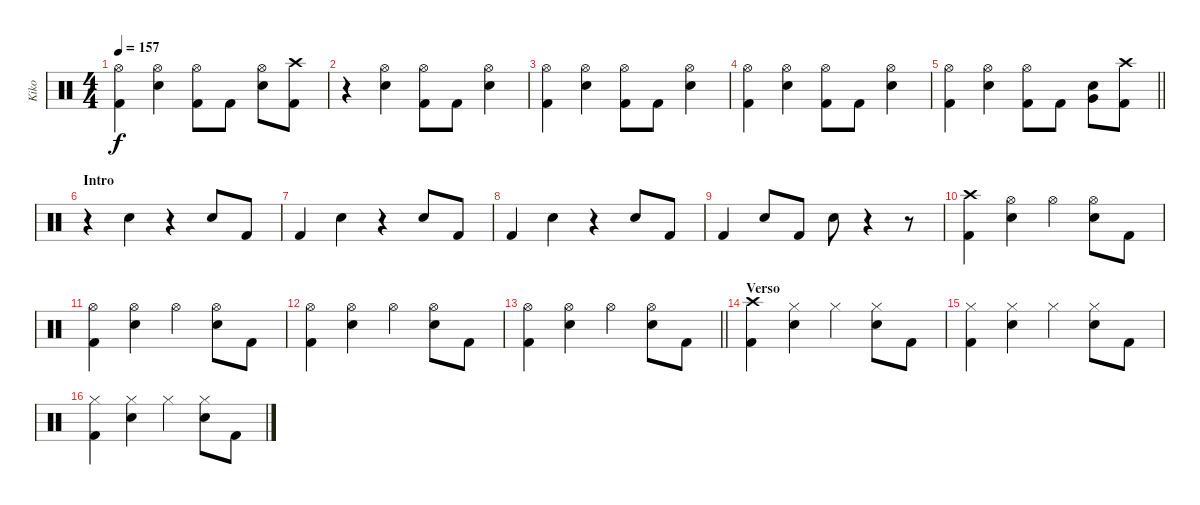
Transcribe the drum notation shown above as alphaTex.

\track ("Kiko" "Kiko") {instrument percussion}
\staff {score}
\articulation defaults
\ts (4 4)
\tempo 157
\clef neutral
\ks c
("Hi-Hat (open)" "Kick (hit) 2").4{dy f} ("Hi-Hat (open)" "Electric Snare (hit)").4 ("Hi-Hat (open)" "Kick (hit) 2").8 "Kick (hit) 2".8 ("Hi-Hat (open)" "Electric Snare (hit)").8 ("Crash high (hit)" "Kick (hit) 2").8 |
r.4 ("Hi-Hat (open)" "Electric Snare (hit)").4 ("Hi-Hat (open)" "Kick (hit) 2").8 "Kick (hit) 2".8 ("Hi-Hat (open)" "Electric Snare (hit)").4 |
("Hi-Hat (open)" "Kick (hit) 2").4 ("Hi-Hat (open)" "Electric Snare (hit)").4 ("Hi-Hat (open)" "Kick (hit) 2").8 "Kick (hit) 2".8 ("Hi-Hat (open)" "Electric Snare (hit)").4 |
("Hi-Hat (open)" "Kick (hit) 2").4 ("Hi-Hat (open)" "Electric Snare (hit)").4 ("Hi-Hat (open)" "Kick (hit) 2").8 "Kick (hit) 2".8 ("Hi-Hat (open)" "Electric Snare (hit)").4 |
\barLineRight lightlight
("Hi-Hat (open)" "Kick (hit) 2").4 ("Hi-Hat (open)" "Electric Snare (hit)").4 ("Hi-Hat (open)" "Kick (hit) 2").8 "Kick (hit) 2".8 ("Very Low Tom (hit)" "Electric Snare (hit)").8 ("Crash high (hit)" "Kick (hit) 2").8 |
\section ("" "Intro")
r.4 "Electric Snare (hit)".4 r.4 "Electric Snare (hit)".8 "Kick (hit) 2".8 |
"Kick (hit) 2".4 "Electric Snare (hit)".4 r.4 "Electric Snare (hit)".8 "Kick (hit) 2".8 |
"Kick (hit) 2".4 "Electric Snare (hit)".4 r.4 "Electric Snare (hit)".8 "Kick (hit) 2".8 |
"Kick (hit) 2".4 "Electric Snare (hit)".8 "Kick (hit) 2".8 "Electric Snare (hit)".8 r.4 r.8 |
("Crash high (hit)" "Kick (hit) 2").4 ("Hi-Hat (open)" "Electric Snare (hit)").4 "Hi-Hat (open)".4 ("Hi-Hat (open)" "Electric Snare (hit)").8 "Kick (hit) 2".8 |
("Hi-Hat (open)" "Kick (hit) 2").4 ("Hi-Hat (open)" "Electric Snare (hit)").4 "Hi-Hat (open)".4 ("Hi-Hat (open)" "Electric Snare (hit)").8 "Kick (hit) 2".8 |
("Hi-Hat (open)" "Kick (hit) 2").4 ("Hi-Hat (open)" "Electric Snare (hit)").4 "Hi-Hat (open)".4 ("Hi-Hat (open)" "Electric Snare (hit)").8 "Kick (hit) 2".8 |
\barLineRight lightlight
("Hi-Hat (open)" "Kick (hit) 2").4 ("Hi-Hat (open)" "Electric Snare (hit)").4 "Hi-Hat (open)".4 ("Hi-Hat (open)" "Electric Snare (hit)").8 "Kick (hit) 2".8 |
\section ("" "Verso")
("Crash high (hit)" "Kick (hit) 2").4 ("Hi-Hat (closed)" "Electric Snare (hit)").4 "Hi-Hat (closed)".4 ("Hi-Hat (closed)" "Electric Snare (hit)").8 "Kick (hit) 2".8 |
("Hi-Hat (closed)" "Kick (hit) 2").4 ("Hi-Hat (closed)" "Electric Snare (hit)").4 "Hi-Hat (closed)".4 ("Hi-Hat (closed)" "Electric Snare (hit)").8 "Kick (hit) 2".8 |
("Hi-Hat (closed)" "Kick (hit) 2").4 ("Hi-Hat (closed)" "Electric Snare (hit)").4 "Hi-Hat (closed)".4 ("Hi-Hat (closed)" "Electric Snare (hit)").8 "Kick (hit) 2".8
